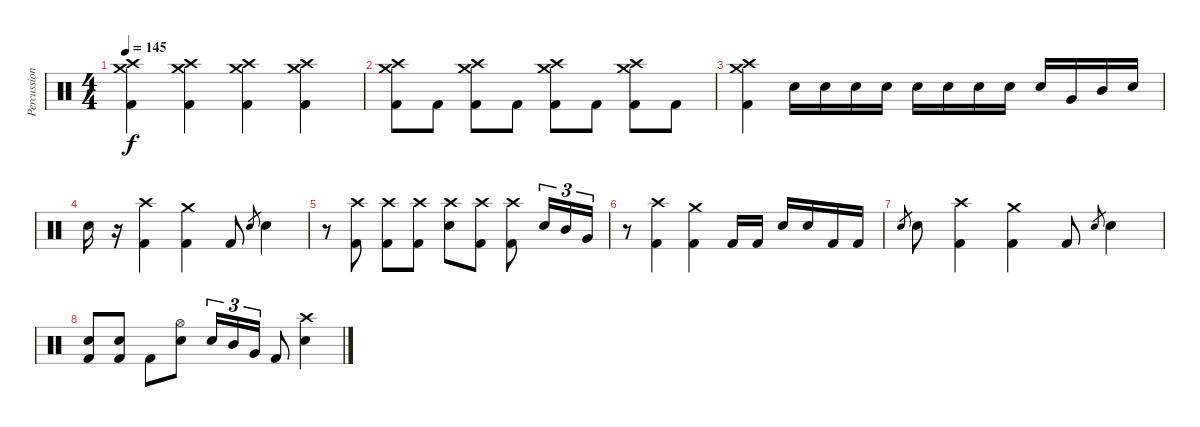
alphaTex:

\track ("Percussion" "Percussion") {instrument percussion}
\staff {score}
\articulation defaults
\ts (4 4)
\tempo 145
\clef neutral
\ks c
("Crash high (hit)" "Crash medium (hit)" "Kick (hit) 2").4{dy f} ("Crash high (hit)" "Crash medium (hit)" "Kick (hit) 2").4 ("Crash high (hit)" "Crash medium (hit)" "Kick (hit) 2").4 ("Crash high (hit)" "Crash medium (hit)" "Kick (hit) 2").4 |
("Crash high (hit)" "Crash medium (hit)" "Kick (hit) 2").8 "Kick (hit) 2".8 ("Crash high (hit)" "Crash medium (hit)" "Kick (hit) 2").8 "Kick (hit) 2".8 ("Crash high (hit)" "Crash medium (hit)" "Kick (hit) 2").8 "Kick (hit) 2".8 ("Crash high (hit)" "Crash medium (hit)" "Kick (hit) 2").8 "Kick (hit) 2".8 |
("Crash high (hit)" "Crash medium (hit)" "Kick (hit) 2").4 "Snare (hit) 2".16 "Snare (hit) 2".16 "Snare (hit) 2".16 "Snare (hit) 2".16 "Snare (hit) 2".16 "Snare (hit) 2".16 "Snare (hit) 2".16 "Snare (hit) 2".16 "Snare (hit) 2".16 "Very Low Tom (hit)".16 "Mid Tom (hit)".16 "Snare (hit) 2".16 |
"Snare (hit) 2".16 r.16 ("Crash high (hit)" "Kick (hit) 2").4 ("Crash medium (hit)" "Kick (hit) 2").4 "Kick (hit) 2".8 "Snare (hit) 2".8{gr} "Snare (hit) 2".4 |
r.8 ("Crash high (hit)" "Kick (hit) 2").8 ("Crash high (hit)" "Kick (hit) 2").8 ("Crash high (hit)" "Kick (hit) 2").8 ("Crash high (hit)" "Snare (hit) 2").8 ("Crash high (hit)" "Kick (hit) 2").8 ("Crash high (hit)" "Kick (hit) 2").8 "Snare (hit) 2".16{tu (3 2)} "Mid Tom (hit)".16{tu (3 2)} "Very Low Tom (hit)".16{tu (3 2)} |
r.8 ("Crash high (hit)" "Kick (hit) 2").4 ("Crash medium (hit)" "Kick (hit) 2").4 "Kick (hit) 2".16 "Kick (hit) 2".16 "Snare (hit) 2".16 "Snare (hit) 2".16 "Kick (hit) 2".16 "Kick (hit) 2".16 |
"Snare (hit) 2".8{gr} "Snare (hit) 2".8 ("Crash high (hit)" "Kick (hit) 2").4 ("Crash medium (hit)" "Kick (hit) 2").4 "Kick (hit) 2".8 "Snare (hit) 2".8{gr} "Snare (hit) 2".4 |
("Snare (hit) 2" "Kick (hit) 2").8 ("Snare (hit) 2" "Kick (hit) 2").8 "Kick (hit) 2".8 ("Hi-Hat (open)" "Snare (hit) 2").8 "Snare (hit) 2".16{tu (3 2)} "Mid Tom (hit)".16{tu (3 2)} "Very Low Tom (hit)".16{tu (3 2)} "Kick (hit) 2".8 ("Crash high (hit)" "Snare (hit) 2").4
